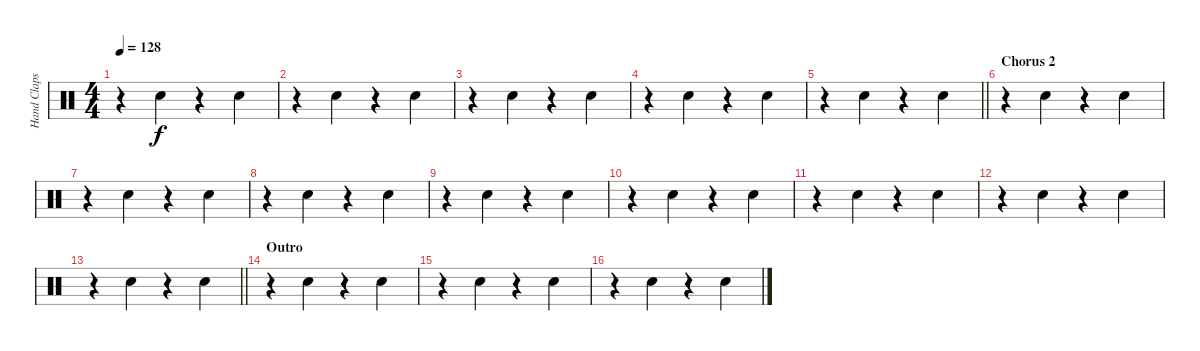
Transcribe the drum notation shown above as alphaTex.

\track ("Hand Claps" "Hand Claps") {instrument percussion}
\staff {score}
\articulation defaults
\ts (4 4)
\tempo 128
\clef neutral
\ks c
r.4{dy f} "Hand Clap (hit)".4 r.4 "Hand Clap (hit)".4 |
r.4 "Hand Clap (hit)".4 r.4 "Hand Clap (hit)".4 |
r.4 "Hand Clap (hit)".4 r.4 "Hand Clap (hit)".4 |
r.4 "Hand Clap (hit)".4 r.4 "Hand Clap (hit)".4 |
\barLineRight lightlight
r.4 "Hand Clap (hit)".4 r.4 "Hand Clap (hit)".4 |
\section ("" "Chorus 2")
r.4 "Hand Clap (hit)".4 r.4 "Hand Clap (hit)".4 |
r.4 "Hand Clap (hit)".4 r.4 "Hand Clap (hit)".4 |
r.4 "Hand Clap (hit)".4 r.4 "Hand Clap (hit)".4 |
r.4 "Hand Clap (hit)".4 r.4 "Hand Clap (hit)".4 |
r.4 "Hand Clap (hit)".4 r.4 "Hand Clap (hit)".4 |
r.4 "Hand Clap (hit)".4 r.4 "Hand Clap (hit)".4 |
r.4 "Hand Clap (hit)".4 r.4 "Hand Clap (hit)".4 |
\barLineRight lightlight
r.4 "Hand Clap (hit)".4 r.4 "Hand Clap (hit)".4 |
\section ("" "Outro")
r.4 "Hand Clap (hit)".4 r.4 "Hand Clap (hit)".4 |
r.4 "Hand Clap (hit)".4 r.4 "Hand Clap (hit)".4 |
r.4 "Hand Clap (hit)".4 r.4 "Hand Clap (hit)".4
